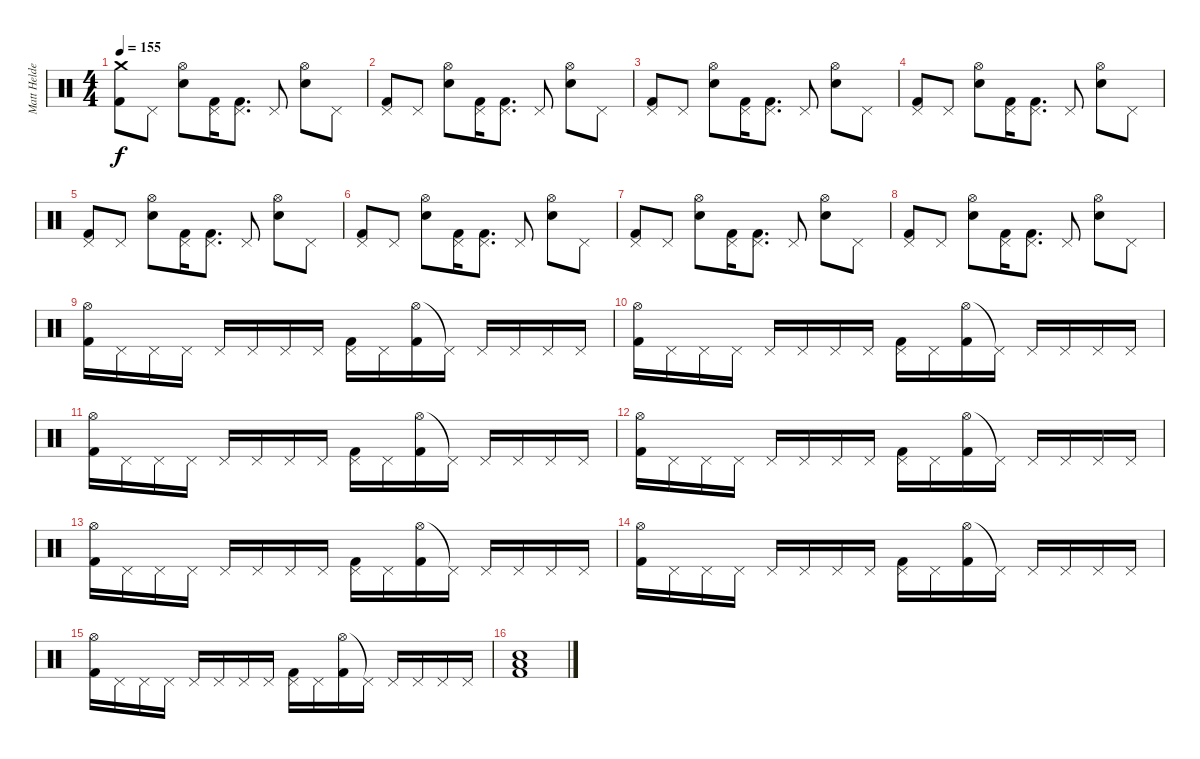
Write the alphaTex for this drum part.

\track ("Matt Helders" "Matt Helde") {instrument percussion}
\staff {score}
\articulation defaults
\ts (4 4)
\tempo 155
\clef neutral
\ks c
("Crash medium (hit)" "Kick (hit) 2").8{dy f} "Pedal Hi-Hat (hit)".8 ("Hi-Hat (open)" "Snare (hit) 2").8 ("Pedal Hi-Hat (hit)" "Kick (hit) 2").16 ("Pedal Hi-Hat (hit)" "Kick (hit) 2").8{d} "Pedal Hi-Hat (hit)".8 ("Hi-Hat (open)" "Snare (hit) 2").8 "Pedal Hi-Hat (hit)".8 |
("Pedal Hi-Hat (hit)" "Kick (hit) 2").8 "Pedal Hi-Hat (hit)".8 ("Hi-Hat (open)" "Snare (hit) 2").8 ("Pedal Hi-Hat (hit)" "Kick (hit) 2").16 ("Pedal Hi-Hat (hit)" "Kick (hit) 2").8{d} "Pedal Hi-Hat (hit)".8 ("Hi-Hat (open)" "Snare (hit) 2").8 "Pedal Hi-Hat (hit)".8 |
("Pedal Hi-Hat (hit)" "Kick (hit) 2").8 "Pedal Hi-Hat (hit)".8 ("Hi-Hat (open)" "Snare (hit) 2").8 ("Pedal Hi-Hat (hit)" "Kick (hit) 2").16 ("Pedal Hi-Hat (hit)" "Kick (hit) 2").8{d} "Pedal Hi-Hat (hit)".8 ("Hi-Hat (open)" "Snare (hit) 2").8 "Pedal Hi-Hat (hit)".8 |
("Pedal Hi-Hat (hit)" "Kick (hit) 2").8 "Pedal Hi-Hat (hit)".8 ("Hi-Hat (open)" "Snare (hit) 2").8 ("Pedal Hi-Hat (hit)" "Kick (hit) 2").16 ("Pedal Hi-Hat (hit)" "Kick (hit) 2").8{d} "Pedal Hi-Hat (hit)".8 ("Hi-Hat (open)" "Snare (hit) 2").8 "Pedal Hi-Hat (hit)".8 |
("Pedal Hi-Hat (hit)" "Kick (hit) 2").8 "Pedal Hi-Hat (hit)".8 ("Hi-Hat (open)" "Snare (hit) 2").8 ("Pedal Hi-Hat (hit)" "Kick (hit) 2").16 ("Pedal Hi-Hat (hit)" "Kick (hit) 2").8{d} "Pedal Hi-Hat (hit)".8 ("Hi-Hat (open)" "Snare (hit) 2").8 "Pedal Hi-Hat (hit)".8 |
("Pedal Hi-Hat (hit)" "Kick (hit) 2").8 "Pedal Hi-Hat (hit)".8 ("Hi-Hat (open)" "Snare (hit) 2").8 ("Pedal Hi-Hat (hit)" "Kick (hit) 2").16 ("Pedal Hi-Hat (hit)" "Kick (hit) 2").8{d} "Pedal Hi-Hat (hit)".8 ("Hi-Hat (open)" "Snare (hit) 2").8 "Pedal Hi-Hat (hit)".8 |
("Pedal Hi-Hat (hit)" "Kick (hit) 2").8 "Pedal Hi-Hat (hit)".8 ("Hi-Hat (open)" "Snare (hit) 2").8 ("Pedal Hi-Hat (hit)" "Kick (hit) 2").16 ("Pedal Hi-Hat (hit)" "Kick (hit) 2").8{d} "Pedal Hi-Hat (hit)".8 ("Hi-Hat (open)" "Snare (hit) 2").8 "Pedal Hi-Hat (hit)".8 |
("Pedal Hi-Hat (hit)" "Kick (hit) 2").8 "Pedal Hi-Hat (hit)".8 ("Hi-Hat (open)" "Snare (hit) 2").8 ("Pedal Hi-Hat (hit)" "Kick (hit) 2").16 ("Pedal Hi-Hat (hit)" "Kick (hit) 2").8{d} "Pedal Hi-Hat (hit)".8 ("Hi-Hat (open)" "Snare (hit) 2").8 "Pedal Hi-Hat (hit)".8 |
("Hi-Hat (open)" "Kick (hit) 2").16 "Pedal Hi-Hat (hit)".16 "Pedal Hi-Hat (hit)".16 "Pedal Hi-Hat (hit)".16 "Pedal Hi-Hat (hit)".16 "Pedal Hi-Hat (hit)".16 "Pedal Hi-Hat (hit)".16 "Pedal Hi-Hat (hit)".16 ("Pedal Hi-Hat (hit)" "Kick (hit) 2").16 "Pedal Hi-Hat (hit)".16 ("Hi-Hat (open)" "Kick (hit) 2").16 "Pedal Hi-Hat (hit)"{t}.16 "Pedal Hi-Hat (hit)".16 "Pedal Hi-Hat (hit)".16 "Pedal Hi-Hat (hit)".16 "Pedal Hi-Hat (hit)".16 |
("Hi-Hat (open)" "Kick (hit) 2").16 "Pedal Hi-Hat (hit)".16 "Pedal Hi-Hat (hit)".16 "Pedal Hi-Hat (hit)".16 "Pedal Hi-Hat (hit)".16 "Pedal Hi-Hat (hit)".16 "Pedal Hi-Hat (hit)".16 "Pedal Hi-Hat (hit)".16 ("Pedal Hi-Hat (hit)" "Kick (hit) 2").16 "Pedal Hi-Hat (hit)".16 ("Hi-Hat (open)" "Kick (hit) 2").16 "Pedal Hi-Hat (hit)"{t}.16 "Pedal Hi-Hat (hit)".16 "Pedal Hi-Hat (hit)".16 "Pedal Hi-Hat (hit)".16 "Pedal Hi-Hat (hit)".16 |
("Hi-Hat (open)" "Kick (hit) 2").16 "Pedal Hi-Hat (hit)".16 "Pedal Hi-Hat (hit)".16 "Pedal Hi-Hat (hit)".16 "Pedal Hi-Hat (hit)".16 "Pedal Hi-Hat (hit)".16 "Pedal Hi-Hat (hit)".16 "Pedal Hi-Hat (hit)".16 ("Pedal Hi-Hat (hit)" "Kick (hit) 2").16 "Pedal Hi-Hat (hit)".16 ("Hi-Hat (open)" "Kick (hit) 2").16 "Pedal Hi-Hat (hit)"{t}.16 "Pedal Hi-Hat (hit)".16 "Pedal Hi-Hat (hit)".16 "Pedal Hi-Hat (hit)".16 "Pedal Hi-Hat (hit)".16 |
("Hi-Hat (open)" "Kick (hit) 2").16 "Pedal Hi-Hat (hit)".16 "Pedal Hi-Hat (hit)".16 "Pedal Hi-Hat (hit)".16 "Pedal Hi-Hat (hit)".16 "Pedal Hi-Hat (hit)".16 "Pedal Hi-Hat (hit)".16 "Pedal Hi-Hat (hit)".16 ("Pedal Hi-Hat (hit)" "Kick (hit) 2").16 "Pedal Hi-Hat (hit)".16 ("Hi-Hat (open)" "Kick (hit) 2").16 "Pedal Hi-Hat (hit)"{t}.16 "Pedal Hi-Hat (hit)".16 "Pedal Hi-Hat (hit)".16 "Pedal Hi-Hat (hit)".16 "Pedal Hi-Hat (hit)".16 |
("Hi-Hat (open)" "Kick (hit) 2").16 "Pedal Hi-Hat (hit)".16 "Pedal Hi-Hat (hit)".16 "Pedal Hi-Hat (hit)".16 "Pedal Hi-Hat (hit)".16 "Pedal Hi-Hat (hit)".16 "Pedal Hi-Hat (hit)".16 "Pedal Hi-Hat (hit)".16 ("Pedal Hi-Hat (hit)" "Kick (hit) 2").16 "Pedal Hi-Hat (hit)".16 ("Hi-Hat (open)" "Kick (hit) 2").16 "Pedal Hi-Hat (hit)"{t}.16 "Pedal Hi-Hat (hit)".16 "Pedal Hi-Hat (hit)".16 "Pedal Hi-Hat (hit)".16 "Pedal Hi-Hat (hit)".16 |
("Hi-Hat (open)" "Kick (hit) 2").16 "Pedal Hi-Hat (hit)".16 "Pedal Hi-Hat (hit)".16 "Pedal Hi-Hat (hit)".16 "Pedal Hi-Hat (hit)".16 "Pedal Hi-Hat (hit)".16 "Pedal Hi-Hat (hit)".16 "Pedal Hi-Hat (hit)".16 ("Pedal Hi-Hat (hit)" "Kick (hit) 2").16 "Pedal Hi-Hat (hit)".16 ("Hi-Hat (open)" "Kick (hit) 2").16 "Pedal Hi-Hat (hit)"{t}.16 "Pedal Hi-Hat (hit)".16 "Pedal Hi-Hat (hit)".16 "Pedal Hi-Hat (hit)".16 "Pedal Hi-Hat (hit)".16 |
("Hi-Hat (open)" "Kick (hit) 2").16 "Pedal Hi-Hat (hit)".16 "Pedal Hi-Hat (hit)".16 "Pedal Hi-Hat (hit)".16 "Pedal Hi-Hat (hit)".16 "Pedal Hi-Hat (hit)".16 "Pedal Hi-Hat (hit)".16 "Pedal Hi-Hat (hit)".16 ("Pedal Hi-Hat (hit)" "Kick (hit) 2").16 "Pedal Hi-Hat (hit)".16 ("Hi-Hat (open)" "Kick (hit) 2").16 "Pedal Hi-Hat (hit)"{t}.16 "Pedal Hi-Hat (hit)".16 "Pedal Hi-Hat (hit)".16 "Pedal Hi-Hat (hit)".16 "Pedal Hi-Hat (hit)".16 |
("Low Tom (hit)" "Snare (hit) 2" "Kick (hit) 2").1
